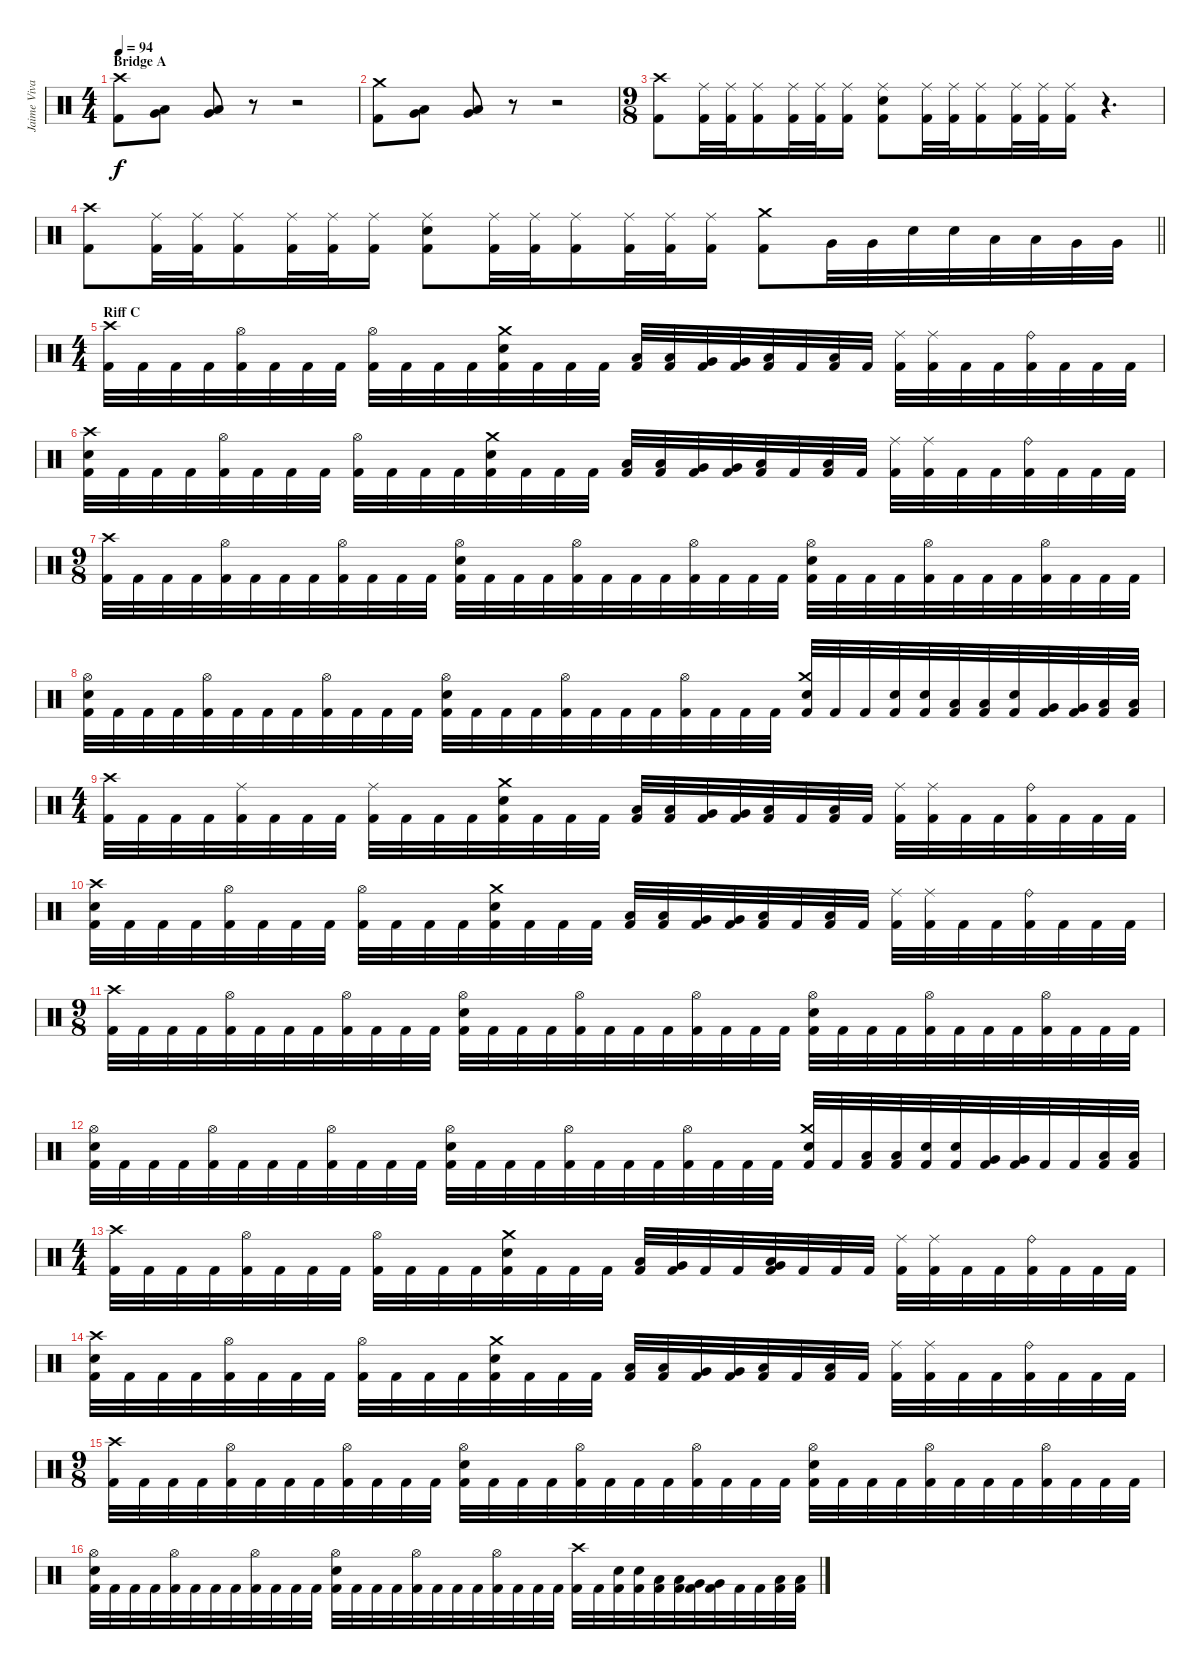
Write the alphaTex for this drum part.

\track ("Jaime Vivar" "Jaime Viva") {instrument percussion}
\staff {score}
\articulation defaults
\ts (4 4)
\section ("" "Bridge A")
\tempo 94
\clef neutral
\ks c
("Crash high (hit)" "Kick (hit) 2").8{dy f} ("Very Low Tom (hit)" "Low Floor Tom (hit)").8 ("Very Low Tom (hit)" "Low Floor Tom (hit)").8 r.8 r.2 |
("Crash medium (hit)" "Kick (hit) 2").8 ("Very Low Tom (hit)" "Low Floor Tom (hit)").8 ("Very Low Tom (hit)" "Low Floor Tom (hit)").8 r.8 r.2 |
\ts (9 8)
("Crash high (hit)" "Kick (hit) 2").8 ("Ride (middle)" "Kick (hit) 2").32 ("Ride (middle)" "Kick (hit) 2").32 ("Ride (middle)" "Kick (hit) 2").16 ("Ride (middle)" "Kick (hit) 2").32 ("Ride (middle)" "Kick (hit) 2").32 ("Ride (middle)" "Kick (hit) 2").16 ("Ride (middle)" "Snare (hit) 2" "Kick (hit) 2").8 ("Ride (middle)" "Kick (hit) 2").32 ("Ride (middle)" "Kick (hit) 2").32 ("Ride (middle)" "Kick (hit) 2").16 ("Ride (middle)" "Kick (hit) 2").32 ("Ride (middle)" "Kick (hit) 2").32 ("Ride (middle)" "Kick (hit) 2").16 r.4{d} |
\barLineRight lightlight
("Crash high (hit)" "Kick (hit) 2").8 ("Ride (middle)" "Kick (hit) 2").32 ("Ride (middle)" "Kick (hit) 2").32 ("Ride (middle)" "Kick (hit) 2").16 ("Ride (middle)" "Kick (hit) 2").32 ("Ride (middle)" "Kick (hit) 2").32 ("Ride (middle)" "Kick (hit) 2").16 ("Ride (middle)" "Snare (hit) 2" "Kick (hit) 2").8 ("Ride (middle)" "Kick (hit) 2").32 ("Ride (middle)" "Kick (hit) 2").32 ("Ride (middle)" "Kick (hit) 2").16 ("Ride (middle)" "Kick (hit) 2").32 ("Ride (middle)" "Kick (hit) 2").32 ("Ride (middle)" "Kick (hit) 2").16 ("Crash medium (hit)" "Kick (hit) 2").8 "Very Low Tom (hit)".32 "Very Low Tom (hit)".32 "Snare (hit) 2".32 "Snare (hit) 2".32 "Low Tom (hit)".32 "Low Tom (hit)".32 "Very Low Tom (hit)".32 "Very Low Tom (hit)".32 |
\ts (4 4)
\section ("" "Riff C")
("Crash high (hit)" "Kick (hit) 2").32 "Kick (hit) 2".32 "Kick (hit) 2".32 "Kick (hit) 2".32 ("Hi-Hat (open)" "Kick (hit) 2").32 "Kick (hit) 2".32 "Kick (hit) 2".32 "Kick (hit) 2".32 ("Hi-Hat (open)" "Kick (hit) 2").32 "Kick (hit) 2".32 "Kick (hit) 2".32 "Kick (hit) 2".32 ("Crash medium (hit)" "Snare (hit) 2" "Kick (hit) 2").32 "Kick (hit) 2".32 "Kick (hit) 2".32 "Kick (hit) 2".32 ("Low Tom (hit)" "Kick (hit) 2").32 ("Low Tom (hit)" "Kick (hit) 2").32 ("Very Low Tom (hit)" "Kick (hit) 2").32 ("Very Low Tom (hit)" "Kick (hit) 2").32 ("Low Floor Tom (hit)" "Kick (hit) 2").32 "Kick (hit) 2".32 ("Low Floor Tom (hit)" "Kick (hit) 2").32 "Kick (hit) 2".32 ("Ride (middle)" "Kick (hit) 2").32 ("Ride (middle)" "Kick (hit) 2").32 "Kick (hit) 2".32 "Kick (hit) 2".32 ("Ride (bell)" "Kick (hit) 2").32 "Kick (hit) 2".32 "Kick (hit) 2".32 "Kick (hit) 2".32 |
("Crash high (hit)" "Snare (hit) 2" "Kick (hit) 2").32 "Kick (hit) 2".32 "Kick (hit) 2".32 "Kick (hit) 2".32 ("Hi-Hat (open)" "Kick (hit) 2").32 "Kick (hit) 2".32 "Kick (hit) 2".32 "Kick (hit) 2".32 ("Hi-Hat (open)" "Kick (hit) 2").32 "Kick (hit) 2".32 "Kick (hit) 2".32 "Kick (hit) 2".32 ("Crash medium (hit)" "Snare (hit) 2" "Kick (hit) 2").32 "Kick (hit) 2".32 "Kick (hit) 2".32 "Kick (hit) 2".32 ("Low Tom (hit)" "Kick (hit) 2").32 ("Low Tom (hit)" "Kick (hit) 2").32 ("Very Low Tom (hit)" "Kick (hit) 2").32 ("Very Low Tom (hit)" "Kick (hit) 2").32 ("Low Floor Tom (hit)" "Kick (hit) 2").32 "Kick (hit) 2".32 ("Low Floor Tom (hit)" "Kick (hit) 2").32 "Kick (hit) 2".32 ("Ride (middle)" "Kick (hit) 2").32 ("Ride (middle)" "Kick (hit) 2").32 "Kick (hit) 2".32 "Kick (hit) 2".32 ("Ride (bell)" "Kick (hit) 2").32 "Kick (hit) 2".32 "Kick (hit) 2".32 "Kick (hit) 2".32 |
\ts (9 8)
("Crash high (hit)" "Kick (hit) 2").32 "Kick (hit) 2".32 "Kick (hit) 2".32 "Kick (hit) 2".32 ("Hi-Hat (open)" "Kick (hit) 2").32 "Kick (hit) 2".32 "Kick (hit) 2".32 "Kick (hit) 2".32 ("Hi-Hat (open)" "Kick (hit) 2").32 "Kick (hit) 2".32 "Kick (hit) 2".32 "Kick (hit) 2".32 ("Hi-Hat (open)" "Snare (hit) 2" "Kick (hit) 2").32 "Kick (hit) 2".32 "Kick (hit) 2".32 "Kick (hit) 2".32 ("Hi-Hat (open)" "Kick (hit) 2").32 "Kick (hit) 2".32 "Kick (hit) 2".32 "Kick (hit) 2".32 ("Hi-Hat (open)" "Kick (hit) 2").32 "Kick (hit) 2".32 "Kick (hit) 2".32 "Kick (hit) 2".32 ("Hi-Hat (open)" "Snare (hit) 2" "Kick (hit) 2").32 "Kick (hit) 2".32 "Kick (hit) 2".32 "Kick (hit) 2".32 ("Hi-Hat (open)" "Kick (hit) 2").32 "Kick (hit) 2".32 "Kick (hit) 2".32 "Kick (hit) 2".32 ("Hi-Hat (open)" "Kick (hit) 2").32 "Kick (hit) 2".32 "Kick (hit) 2".32 "Kick (hit) 2".32 |
("Hi-Hat (open)" "Snare (hit) 2" "Kick (hit) 2").32 "Kick (hit) 2".32 "Kick (hit) 2".32 "Kick (hit) 2".32 ("Hi-Hat (open)" "Kick (hit) 2").32 "Kick (hit) 2".32 "Kick (hit) 2".32 "Kick (hit) 2".32 ("Hi-Hat (open)" "Kick (hit) 2").32 "Kick (hit) 2".32 "Kick (hit) 2".32 "Kick (hit) 2".32 ("Hi-Hat (open)" "Snare (hit) 2" "Kick (hit) 2").32 "Kick (hit) 2".32 "Kick (hit) 2".32 "Kick (hit) 2".32 ("Hi-Hat (open)" "Kick (hit) 2").32 "Kick (hit) 2".32 "Kick (hit) 2".32 "Kick (hit) 2".32 ("Hi-Hat (open)" "Kick (hit) 2").32 "Kick (hit) 2".32 "Kick (hit) 2".32 "Kick (hit) 2".32 ("Crash medium (hit)" "Snare (hit) 2" "Kick (hit) 2").32 "Kick (hit) 2".32 "Kick (hit) 2".32 ("Snare (hit) 2" "Kick (hit) 2").32 ("Snare (hit) 2" "Kick (hit) 2").32 ("Low Tom (hit)" "Kick (hit) 2").32 ("Low Tom (hit)" "Kick (hit) 2").32 ("Snare (hit) 2" "Kick (hit) 2").32 ("Very Low Tom (hit)" "Kick (hit) 2").32 ("Very Low Tom (hit)" "Kick (hit) 2").32 ("Low Floor Tom (hit)" "Kick (hit) 2").32 ("Low Floor Tom (hit)" "Kick (hit) 2").32 |
\ts (4 4)
("Crash high (hit)" "Kick (hit) 2").32 "Kick (hit) 2".32 "Kick (hit) 2".32 "Kick (hit) 2".32 ("Ride (middle)" "Kick (hit) 2").32 "Kick (hit) 2".32 "Kick (hit) 2".32 "Kick (hit) 2".32 ("Ride (middle)" "Kick (hit) 2").32 "Kick (hit) 2".32 "Kick (hit) 2".32 "Kick (hit) 2".32 ("Crash medium (hit)" "Snare (hit) 2" "Kick (hit) 2").32 "Kick (hit) 2".32 "Kick (hit) 2".32 "Kick (hit) 2".32 ("Low Tom (hit)" "Kick (hit) 2").32 ("Low Tom (hit)" "Kick (hit) 2").32 ("Very Low Tom (hit)" "Kick (hit) 2").32 ("Very Low Tom (hit)" "Kick (hit) 2").32 ("Low Floor Tom (hit)" "Kick (hit) 2").32 "Kick (hit) 2".32 ("Low Floor Tom (hit)" "Kick (hit) 2").32 "Kick (hit) 2".32 ("Ride (middle)" "Kick (hit) 2").32 ("Ride (middle)" "Kick (hit) 2").32 "Kick (hit) 2".32 "Kick (hit) 2".32 ("Ride (bell)" "Kick (hit) 2").32 "Kick (hit) 2".32 "Kick (hit) 2".32 "Kick (hit) 2".32 |
("Crash high (hit)" "Snare (hit) 2" "Kick (hit) 2").32 "Kick (hit) 2".32 "Kick (hit) 2".32 "Kick (hit) 2".32 ("Hi-Hat (open)" "Kick (hit) 2").32 "Kick (hit) 2".32 "Kick (hit) 2".32 "Kick (hit) 2".32 ("Hi-Hat (open)" "Kick (hit) 2").32 "Kick (hit) 2".32 "Kick (hit) 2".32 "Kick (hit) 2".32 ("Crash medium (hit)" "Snare (hit) 2" "Kick (hit) 2").32 "Kick (hit) 2".32 "Kick (hit) 2".32 "Kick (hit) 2".32 ("Low Tom (hit)" "Kick (hit) 2").32 ("Low Tom (hit)" "Kick (hit) 2").32 ("Very Low Tom (hit)" "Kick (hit) 2").32 ("Very Low Tom (hit)" "Kick (hit) 2").32 ("Low Floor Tom (hit)" "Kick (hit) 2").32 "Kick (hit) 2".32 ("Low Floor Tom (hit)" "Kick (hit) 2").32 "Kick (hit) 2".32 ("Ride (middle)" "Kick (hit) 2").32 ("Ride (middle)" "Kick (hit) 2").32 "Kick (hit) 2".32 "Kick (hit) 2".32 ("Ride (bell)" "Kick (hit) 2").32 "Kick (hit) 2".32 "Kick (hit) 2".32 "Kick (hit) 2".32 |
\ts (9 8)
("Crash high (hit)" "Kick (hit) 2").32 "Kick (hit) 2".32 "Kick (hit) 2".32 "Kick (hit) 2".32 ("Hi-Hat (open)" "Kick (hit) 2").32 "Kick (hit) 2".32 "Kick (hit) 2".32 "Kick (hit) 2".32 ("Hi-Hat (open)" "Kick (hit) 2").32 "Kick (hit) 2".32 "Kick (hit) 2".32 "Kick (hit) 2".32 ("Hi-Hat (open)" "Snare (hit) 2" "Kick (hit) 2").32 "Kick (hit) 2".32 "Kick (hit) 2".32 "Kick (hit) 2".32 ("Hi-Hat (open)" "Kick (hit) 2").32 "Kick (hit) 2".32 "Kick (hit) 2".32 "Kick (hit) 2".32 ("Hi-Hat (open)" "Kick (hit) 2").32 "Kick (hit) 2".32 "Kick (hit) 2".32 "Kick (hit) 2".32 ("Hi-Hat (open)" "Snare (hit) 2" "Kick (hit) 2").32 "Kick (hit) 2".32 "Kick (hit) 2".32 "Kick (hit) 2".32 ("Hi-Hat (open)" "Kick (hit) 2").32 "Kick (hit) 2".32 "Kick (hit) 2".32 "Kick (hit) 2".32 ("Hi-Hat (open)" "Kick (hit) 2").32 "Kick (hit) 2".32 "Kick (hit) 2".32 "Kick (hit) 2".32 |
("Hi-Hat (open)" "Snare (hit) 2" "Kick (hit) 2").32 "Kick (hit) 2".32 "Kick (hit) 2".32 "Kick (hit) 2".32 ("Hi-Hat (open)" "Kick (hit) 2").32 "Kick (hit) 2".32 "Kick (hit) 2".32 "Kick (hit) 2".32 ("Hi-Hat (open)" "Kick (hit) 2").32 "Kick (hit) 2".32 "Kick (hit) 2".32 "Kick (hit) 2".32 ("Hi-Hat (open)" "Snare (hit) 2" "Kick (hit) 2").32 "Kick (hit) 2".32 "Kick (hit) 2".32 "Kick (hit) 2".32 ("Hi-Hat (open)" "Kick (hit) 2").32 "Kick (hit) 2".32 "Kick (hit) 2".32 "Kick (hit) 2".32 ("Hi-Hat (open)" "Kick (hit) 2").32 "Kick (hit) 2".32 "Kick (hit) 2".32 "Kick (hit) 2".32 ("Crash medium (hit)" "Snare (hit) 2" "Kick (hit) 2").32 "Kick (hit) 2".32 ("Low Tom (hit)" "Kick (hit) 2").32 ("Low Tom (hit)" "Kick (hit) 2").32 ("Snare (hit) 2" "Kick (hit) 2").32 ("Snare (hit) 2" "Kick (hit) 2").32 ("Very Low Tom (hit)" "Kick (hit) 2").32 ("Very Low Tom (hit)" "Kick (hit) 2").32 "Kick (hit) 2".32 "Kick (hit) 2".32 ("Low Floor Tom (hit)" "Kick (hit) 2").32 ("Low Floor Tom (hit)" "Kick (hit) 2").32 |
\ts (4 4)
("Crash high (hit)" "Kick (hit) 2").32 "Kick (hit) 2".32 "Kick (hit) 2".32 "Kick (hit) 2".32 ("Hi-Hat (open)" "Kick (hit) 2").32 "Kick (hit) 2".32 "Kick (hit) 2".32 "Kick (hit) 2".32 ("Hi-Hat (open)" "Kick (hit) 2").32 "Kick (hit) 2".32 "Kick (hit) 2".32 "Kick (hit) 2".32 ("Crash medium (hit)" "Snare (hit) 2" "Kick (hit) 2").32 "Kick (hit) 2".32 "Kick (hit) 2".32 "Kick (hit) 2".32 ("Low Tom (hit)" "Kick (hit) 2").32 ("Very Low Tom (hit)" "Kick (hit) 2").32 "Kick (hit) 2".32 "Kick (hit) 2".32 ("Very Low Tom (hit)" "Low Floor Tom (hit)" "Kick (hit) 2").32 "Kick (hit) 2".32 "Kick (hit) 2".32 "Kick (hit) 2".32 ("Ride (middle)" "Kick (hit) 2").32 ("Ride (middle)" "Kick (hit) 2").32 "Kick (hit) 2".32 "Kick (hit) 2".32 ("Ride (bell)" "Kick (hit) 2").32 "Kick (hit) 2".32 "Kick (hit) 2".32 "Kick (hit) 2".32 |
("Crash high (hit)" "Snare (hit) 2" "Kick (hit) 2").32 "Kick (hit) 2".32 "Kick (hit) 2".32 "Kick (hit) 2".32 ("Hi-Hat (open)" "Kick (hit) 2").32 "Kick (hit) 2".32 "Kick (hit) 2".32 "Kick (hit) 2".32 ("Hi-Hat (open)" "Kick (hit) 2").32 "Kick (hit) 2".32 "Kick (hit) 2".32 "Kick (hit) 2".32 ("Crash medium (hit)" "Snare (hit) 2" "Kick (hit) 2").32 "Kick (hit) 2".32 "Kick (hit) 2".32 "Kick (hit) 2".32 ("Low Tom (hit)" "Kick (hit) 2").32 ("Low Tom (hit)" "Kick (hit) 2").32 ("Very Low Tom (hit)" "Kick (hit) 2").32 ("Very Low Tom (hit)" "Kick (hit) 2").32 ("Low Floor Tom (hit)" "Kick (hit) 2").32 "Kick (hit) 2".32 ("Low Floor Tom (hit)" "Kick (hit) 2").32 "Kick (hit) 2".32 ("Ride (middle)" "Kick (hit) 2").32 ("Ride (middle)" "Kick (hit) 2").32 "Kick (hit) 2".32 "Kick (hit) 2".32 ("Ride (bell)" "Kick (hit) 2").32 "Kick (hit) 2".32 "Kick (hit) 2".32 "Kick (hit) 2".32 |
\ts (9 8)
("Crash high (hit)" "Kick (hit) 2").32 "Kick (hit) 2".32 "Kick (hit) 2".32 "Kick (hit) 2".32 ("Hi-Hat (open)" "Kick (hit) 2").32 "Kick (hit) 2".32 "Kick (hit) 2".32 "Kick (hit) 2".32 ("Hi-Hat (open)" "Kick (hit) 2").32 "Kick (hit) 2".32 "Kick (hit) 2".32 "Kick (hit) 2".32 ("Hi-Hat (open)" "Snare (hit) 2" "Kick (hit) 2").32 "Kick (hit) 2".32 "Kick (hit) 2".32 "Kick (hit) 2".32 ("Hi-Hat (open)" "Kick (hit) 2").32 "Kick (hit) 2".32 "Kick (hit) 2".32 "Kick (hit) 2".32 ("Hi-Hat (open)" "Kick (hit) 2").32 "Kick (hit) 2".32 "Kick (hit) 2".32 "Kick (hit) 2".32 ("Hi-Hat (open)" "Snare (hit) 2" "Kick (hit) 2").32 "Kick (hit) 2".32 "Kick (hit) 2".32 "Kick (hit) 2".32 ("Hi-Hat (open)" "Kick (hit) 2").32 "Kick (hit) 2".32 "Kick (hit) 2".32 "Kick (hit) 2".32 ("Hi-Hat (open)" "Kick (hit) 2").32 "Kick (hit) 2".32 "Kick (hit) 2".32 "Kick (hit) 2".32 |
("Hi-Hat (open)" "Snare (hit) 2" "Kick (hit) 2").32 "Kick (hit) 2".32 "Kick (hit) 2".32 "Kick (hit) 2".32 ("Hi-Hat (open)" "Kick (hit) 2").32 "Kick (hit) 2".32 "Kick (hit) 2".32 "Kick (hit) 2".32 ("Hi-Hat (open)" "Kick (hit) 2").32 "Kick (hit) 2".32 "Kick (hit) 2".32 "Kick (hit) 2".32 ("Hi-Hat (open)" "Snare (hit) 2" "Kick (hit) 2").32 "Kick (hit) 2".32 "Kick (hit) 2".32 "Kick (hit) 2".32 ("Hi-Hat (open)" "Kick (hit) 2").32 "Kick (hit) 2".32 "Kick (hit) 2".32 "Kick (hit) 2".32 ("Hi-Hat (open)" "Kick (hit) 2").32 "Kick (hit) 2".32 "Kick (hit) 2".32 "Kick (hit) 2".32 ("Crash high (hit)" "Kick (hit) 2").32 "Kick (hit) 2".32 ("Snare (hit) 2" "Kick (hit) 2").32 ("Snare (hit) 2" "Kick (hit) 2").32 ("Low Tom (hit)" "Kick (hit) 2").32 ("Low Tom (hit)" "Kick (hit) 2").32 ("Very Low Tom (hit)" "Kick (hit) 2").32 ("Very Low Tom (hit)" "Kick (hit) 2").32 "Kick (hit) 2".32 "Kick (hit) 2".32 ("Low Floor Tom (hit)" "Kick (hit) 2").32 ("Low Floor Tom (hit)" "Kick (hit) 2").32
